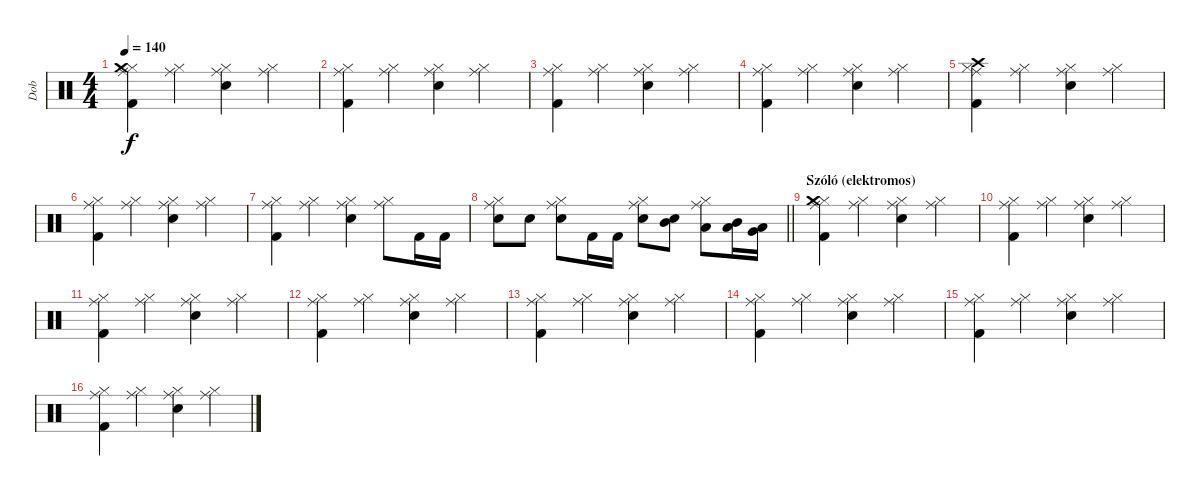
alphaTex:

\track ("Dob" "Dob") {instrument percussion}
\staff {score}
\articulation defaults
\ts (4 4)
\tempo 140
\clef neutral
\ks c
("Hi-Hat (closed)" "Crash medium (hit)" "Kick (hit) 2" "Ride (middle)").4{dy f} ("Hi-Hat (closed)" "Ride (middle)").4 ("Hi-Hat (closed)" "Electric Snare (hit)" "Ride (middle)").4 ("Hi-Hat (closed)" "Ride (middle)").4 |
("Hi-Hat (closed)" "Kick (hit) 2" "Ride (middle)").4 ("Hi-Hat (closed)" "Ride (middle)").4 ("Hi-Hat (closed)" "Electric Snare (hit)" "Ride (middle)").4 ("Hi-Hat (closed)" "Ride (middle)").4 |
("Hi-Hat (closed)" "Kick (hit) 2" "Ride (middle)").4 ("Hi-Hat (closed)" "Ride (middle)").4 ("Hi-Hat (closed)" "Electric Snare (hit)" "Ride (middle)").4 ("Hi-Hat (closed)" "Ride (middle)").4 |
("Hi-Hat (closed)" "Kick (hit) 2" "Ride (middle)").4 ("Hi-Hat (closed)" "Ride (middle)").4 ("Hi-Hat (closed)" "Electric Snare (hit)" "Ride (middle)").4 ("Hi-Hat (closed)" "Ride (middle)").4 |
("Hi-Hat (closed)" "Crash high (hit)" "Kick (hit) 2" "Ride (middle)").4 ("Hi-Hat (closed)" "Ride (middle)").4 ("Hi-Hat (closed)" "Electric Snare (hit)" "Ride (middle)").4 ("Hi-Hat (closed)" "Ride (middle)").4 |
("Hi-Hat (closed)" "Kick (hit) 2" "Ride (middle)").4 ("Hi-Hat (closed)" "Ride (middle)").4 ("Hi-Hat (closed)" "Electric Snare (hit)" "Ride (middle)").4 ("Hi-Hat (closed)" "Ride (middle)").4 |
("Hi-Hat (closed)" "Kick (hit) 2" "Ride (middle)").4 ("Hi-Hat (closed)" "Ride (middle)").4 ("Hi-Hat (closed)" "Electric Snare (hit)" "Ride (middle)").4 ("Hi-Hat (closed)" "Ride (middle)").8 "Kick (hit) 2".16 "Kick (hit) 2".16 |
\barLineRight lightlight
("Hi-Hat (closed)" "Electric Snare (hit)" "Ride (middle)").8 "Electric Snare (hit)".8 ("Hi-Hat (closed)" "Electric Snare (hit)" "Ride (middle)").8 "Kick (hit) 2".16 "Kick (hit) 2".16 ("Hi-Hat (closed)" "Electric Snare (hit)" "Ride (middle)").8 ("Mid Tom (hit)" "Electric Snare (hit)").8 ("Hi-Hat (closed)" "Low Tom (hit)" "Ride (middle)").8 ("Mid Tom (hit)" "Low Tom (hit)").16 ("Low Tom (hit)" "Very Low Tom (hit)").16 |
\section ("" "Szóló (elektromos)")
("Hi-Hat (closed)" "Crash medium (hit)" "Kick (hit) 2" "Ride (middle)").4 ("Hi-Hat (closed)" "Ride (middle)").4 ("Hi-Hat (closed)" "Electric Snare (hit)" "Ride (middle)").4 ("Hi-Hat (closed)" "Ride (middle)").4 |
("Hi-Hat (closed)" "Kick (hit) 2" "Ride (middle)").4 ("Hi-Hat (closed)" "Ride (middle)").4 ("Hi-Hat (closed)" "Electric Snare (hit)" "Ride (middle)").4 ("Hi-Hat (closed)" "Ride (middle)").4 |
("Hi-Hat (closed)" "Kick (hit) 2" "Ride (middle)").4 ("Hi-Hat (closed)" "Ride (middle)").4 ("Hi-Hat (closed)" "Electric Snare (hit)" "Ride (middle)").4 ("Hi-Hat (closed)" "Ride (middle)").4 |
("Hi-Hat (closed)" "Kick (hit) 2" "Ride (middle)").4 ("Hi-Hat (closed)" "Ride (middle)").4 ("Hi-Hat (closed)" "Electric Snare (hit)" "Ride (middle)").4 ("Hi-Hat (closed)" "Ride (middle)").4 |
("Hi-Hat (closed)" "Kick (hit) 2" "Ride (middle)").4 ("Hi-Hat (closed)" "Ride (middle)").4 ("Hi-Hat (closed)" "Electric Snare (hit)" "Ride (middle)").4 ("Hi-Hat (closed)" "Ride (middle)").4 |
("Hi-Hat (closed)" "Kick (hit) 2" "Ride (middle)").4 ("Hi-Hat (closed)" "Ride (middle)").4 ("Hi-Hat (closed)" "Electric Snare (hit)" "Ride (middle)").4 ("Hi-Hat (closed)" "Ride (middle)").4 |
("Hi-Hat (closed)" "Kick (hit) 2" "Ride (middle)").4 ("Hi-Hat (closed)" "Ride (middle)").4 ("Hi-Hat (closed)" "Electric Snare (hit)" "Ride (middle)").4 ("Hi-Hat (closed)" "Ride (middle)").4 |
("Hi-Hat (closed)" "Kick (hit) 2" "Ride (middle)").4 ("Hi-Hat (closed)" "Ride (middle)").4 ("Hi-Hat (closed)" "Electric Snare (hit)" "Ride (middle)").4 ("Hi-Hat (closed)" "Ride (middle)").4
